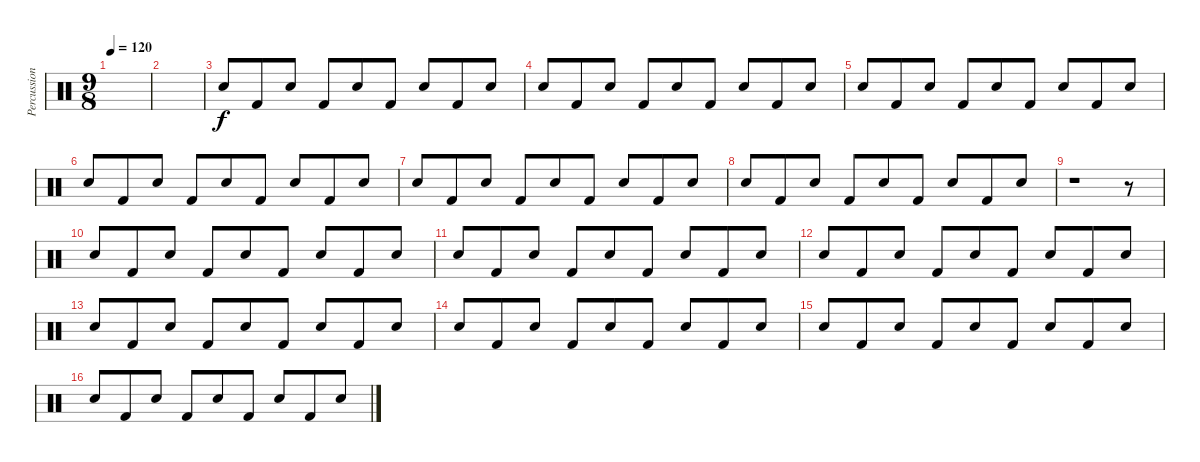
\track ("Percussion" "Percussion") {instrument percussion}
\staff {score}
\articulation defaults
\ts (9 8)
\tempo 120
\clef neutral
\ks c
|
|
"Electric Snare (hit)".8 "Kick (hit) 2".8 "Electric Snare (hit)".8 "Kick (hit) 2".8 "Electric Snare (hit)".8 "Kick (hit) 2".8 "Electric Snare (hit)".8 "Kick (hit) 2".8 "Electric Snare (hit)".8 |
"Electric Snare (hit)".8 "Kick (hit) 2".8 "Electric Snare (hit)".8 "Kick (hit) 2".8 "Electric Snare (hit)".8 "Kick (hit) 2".8 "Electric Snare (hit)".8 "Kick (hit) 2".8 "Electric Snare (hit)".8 |
"Electric Snare (hit)".8 "Kick (hit) 2".8 "Electric Snare (hit)".8 "Kick (hit) 2".8 "Electric Snare (hit)".8 "Kick (hit) 2".8 "Electric Snare (hit)".8 "Kick (hit) 2".8 "Electric Snare (hit)".8 |
"Electric Snare (hit)".8 "Kick (hit) 2".8 "Electric Snare (hit)".8 "Kick (hit) 2".8 "Electric Snare (hit)".8 "Kick (hit) 2".8 "Electric Snare (hit)".8 "Kick (hit) 2".8 "Electric Snare (hit)".8 |
"Electric Snare (hit)".8 "Kick (hit) 2".8 "Electric Snare (hit)".8 "Kick (hit) 2".8 "Electric Snare (hit)".8 "Kick (hit) 2".8 "Electric Snare (hit)".8 "Kick (hit) 2".8 "Electric Snare (hit)".8 |
"Electric Snare (hit)".8 "Kick (hit) 2".8 "Electric Snare (hit)".8 "Kick (hit) 2".8 "Electric Snare (hit)".8 "Kick (hit) 2".8 "Electric Snare (hit)".8 "Kick (hit) 2".8 "Electric Snare (hit)".8 |
r.1 r.8 |
"Electric Snare (hit)".8 "Kick (hit) 2".8 "Electric Snare (hit)".8 "Kick (hit) 2".8 "Electric Snare (hit)".8 "Kick (hit) 2".8 "Electric Snare (hit)".8 "Kick (hit) 2".8 "Electric Snare (hit)".8 |
"Electric Snare (hit)".8 "Kick (hit) 2".8 "Electric Snare (hit)".8 "Kick (hit) 2".8 "Electric Snare (hit)".8 "Kick (hit) 2".8 "Electric Snare (hit)".8 "Kick (hit) 2".8 "Electric Snare (hit)".8 |
"Electric Snare (hit)".8 "Kick (hit) 2".8 "Electric Snare (hit)".8 "Kick (hit) 2".8 "Electric Snare (hit)".8 "Kick (hit) 2".8 "Electric Snare (hit)".8 "Kick (hit) 2".8 "Electric Snare (hit)".8 |
"Electric Snare (hit)".8 "Kick (hit) 2".8 "Electric Snare (hit)".8 "Kick (hit) 2".8 "Electric Snare (hit)".8 "Kick (hit) 2".8 "Electric Snare (hit)".8 "Kick (hit) 2".8 "Electric Snare (hit)".8 |
"Electric Snare (hit)".8 "Kick (hit) 2".8 "Electric Snare (hit)".8 "Kick (hit) 2".8 "Electric Snare (hit)".8 "Kick (hit) 2".8 "Electric Snare (hit)".8 "Kick (hit) 2".8 "Electric Snare (hit)".8 |
"Electric Snare (hit)".8 "Kick (hit) 2".8 "Electric Snare (hit)".8 "Kick (hit) 2".8 "Electric Snare (hit)".8 "Kick (hit) 2".8 "Electric Snare (hit)".8 "Kick (hit) 2".8 "Electric Snare (hit)".8 |
"Electric Snare (hit)".8 "Kick (hit) 2".8 "Electric Snare (hit)".8 "Kick (hit) 2".8 "Electric Snare (hit)".8 "Kick (hit) 2".8 "Electric Snare (hit)".8 "Kick (hit) 2".8 "Electric Snare (hit)".8
